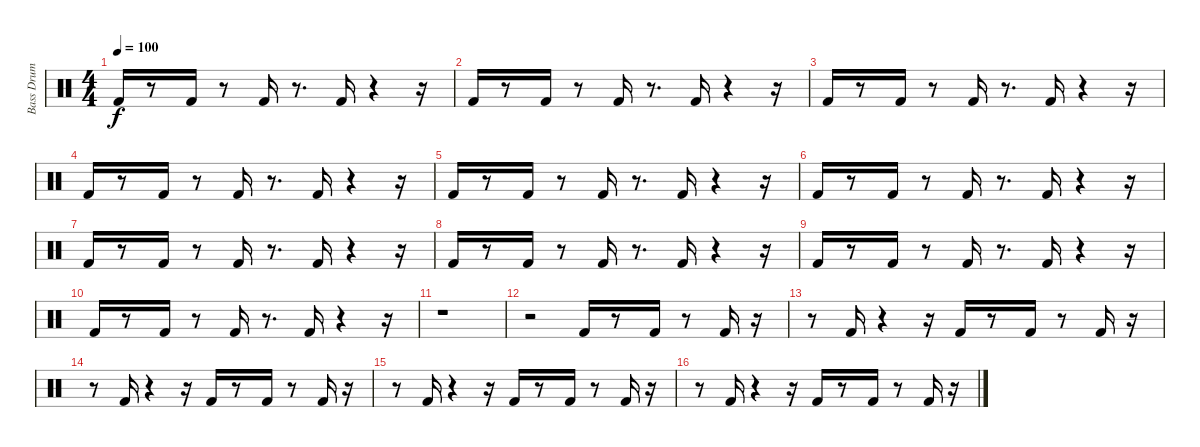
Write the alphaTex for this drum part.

\track ("Bass Drum" "Bass Drum") {instrument percussion}
\staff {score}
\articulation defaults
\ts (4 4)
\tempo 100
\clef neutral
\ks c "Kick (hit) 2".16{dy f}
r.8 "Kick (hit) 2".16 r.8 "Kick (hit) 2".16 r.8{d} "Kick (hit) 2".16 r.4 r.16 |
"Kick (hit) 2".16 r.8 "Kick (hit) 2".16 r.8 "Kick (hit) 2".16 r.8{d} "Kick (hit) 2".16 r.4 r.16 |
"Kick (hit) 2".16 r.8 "Kick (hit) 2".16 r.8 "Kick (hit) 2".16 r.8{d} "Kick (hit) 2".16 r.4 r.16 |
"Kick (hit) 2".16 r.8 "Kick (hit) 2".16 r.8 "Kick (hit) 2".16 r.8{d} "Kick (hit) 2".16 r.4 r.16 |
"Kick (hit) 2".16 r.8 "Kick (hit) 2".16 r.8 "Kick (hit) 2".16 r.8{d} "Kick (hit) 2".16 r.4 r.16 |
"Kick (hit) 2".16 r.8 "Kick (hit) 2".16 r.8 "Kick (hit) 2".16 r.8{d} "Kick (hit) 2".16 r.4 r.16 |
"Kick (hit) 2".16 r.8 "Kick (hit) 2".16 r.8 "Kick (hit) 2".16 r.8{d} "Kick (hit) 2".16 r.4 r.16 |
"Kick (hit) 2".16 r.8 "Kick (hit) 2".16 r.8 "Kick (hit) 2".16 r.8{d} "Kick (hit) 2".16 r.4 r.16 |
"Kick (hit) 2".16 r.8 "Kick (hit) 2".16 r.8 "Kick (hit) 2".16 r.8{d} "Kick (hit) 2".16 r.4 r.16 |
"Kick (hit) 2".16 r.8 "Kick (hit) 2".16 r.8 "Kick (hit) 2".16 r.8{d} "Kick (hit) 2".16 r.4 r.16 |
r.1 |
r.2 "Kick (hit) 2".16 r.8 "Kick (hit) 2".16 r.8 "Kick (hit) 2".16 r.16 |
r.8 "Kick (hit) 2".16 r.4 r.16 "Kick (hit) 2".16 r.8 "Kick (hit) 2".16 r.8 "Kick (hit) 2".16 r.16 |
r.8 "Kick (hit) 2".16 r.4 r.16 "Kick (hit) 2".16 r.8 "Kick (hit) 2".16 r.8 "Kick (hit) 2".16 r.16 |
r.8 "Kick (hit) 2".16 r.4 r.16 "Kick (hit) 2".16 r.8 "Kick (hit) 2".16 r.8 "Kick (hit) 2".16 r.16 |
r.8 "Kick (hit) 2".16 r.4 r.16 "Kick (hit) 2".16 r.8 "Kick (hit) 2".16 r.8 "Kick (hit) 2".16 r.16
